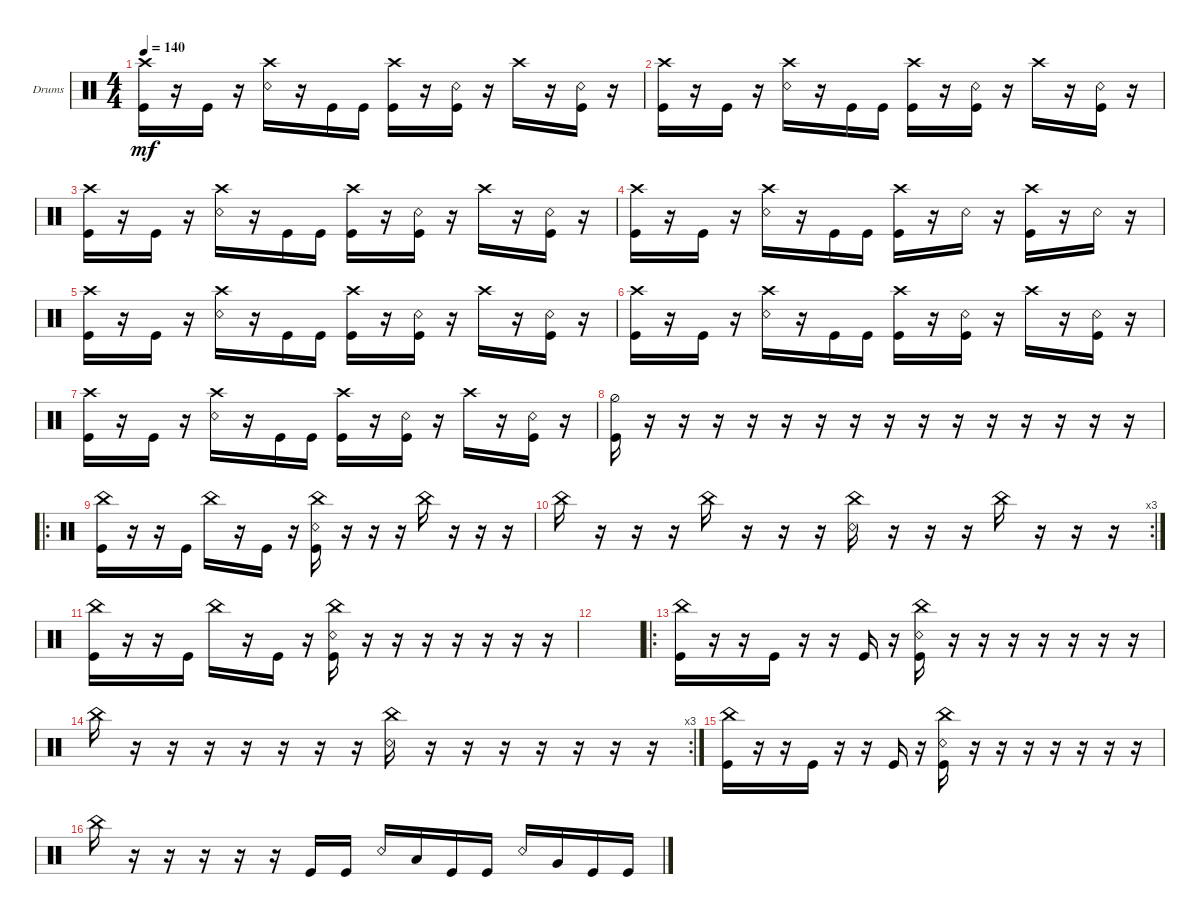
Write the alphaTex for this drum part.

\defaultSystemsLayout 4
\bracketExtendMode groupsimilarinstruments
\firstSystemTrackNameOrientation horizontal
\otherSystemsTrackNameOrientation horizontal
\track ("Drums" "Drums") {instrument percussion}
\staff {score}
\articulation defaults
\ts (4 4)
\tempo 140
\clef neutral
\ks c
("Kick (hit)" "Crash high (hit)").16{dy mf} r.16 "Kick (hit)".16 r.16 ("Snare (rim shot)" "Crash high (hit)").16 r.16 "Kick (hit)".16 "Kick (hit)".16 ("Kick (hit)" "Crash high (hit)").16 r.16 ("Kick (hit)" "Snare (rim shot)").16 r.16 "Crash high (hit)".16 r.16 ("Kick (hit)" "Snare (rim shot)").16 r.16 |
("Kick (hit)" "Crash high (hit)").16 r.16 "Kick (hit)".16 r.16 ("Snare (rim shot)" "Crash high (hit)").16 r.16 "Kick (hit)".16 "Kick (hit)".16 ("Kick (hit)" "Crash high (hit)").16 r.16 ("Kick (hit)" "Snare (rim shot)").16 r.16 "Crash high (hit)".16 r.16 ("Kick (hit)" "Snare (rim shot)").16 r.16 |
("Kick (hit)" "Crash high (hit)").16 r.16 "Kick (hit)".16 r.16 ("Snare (rim shot)" "Crash high (hit)").16 r.16 "Kick (hit)".16 "Kick (hit)".16 ("Kick (hit)" "Crash high (hit)").16 r.16 ("Kick (hit)" "Snare (rim shot)").16 r.16 "Crash high (hit)".16 r.16 ("Kick (hit)" "Snare (rim shot)").16 r.16 |
("Kick (hit)" "Crash high (hit)").16 r.16 "Kick (hit)".16 r.16 ("Snare (rim shot)" "Crash high (hit)").16 r.16 "Kick (hit)".16 "Kick (hit)".16 ("Crash high (hit)" "Kick (hit)").16 r.16 "Snare (rim shot)".16 r.16 ("Kick (hit)" "Crash high (hit)").16 r.16 "Snare (rim shot)".16 r.16 |
("Kick (hit)" "Crash high (hit)").16 r.16 "Kick (hit)".16 r.16 ("Snare (rim shot)" "Crash high (hit)").16 r.16 "Kick (hit)".16 "Kick (hit)".16 ("Kick (hit)" "Crash high (hit)").16 r.16 ("Kick (hit)" "Snare (rim shot)").16 r.16 "Crash high (hit)".16 r.16 ("Kick (hit)" "Snare (rim shot)").16 r.16 |
("Kick (hit)" "Crash high (hit)").16 r.16 "Kick (hit)".16 r.16 ("Snare (rim shot)" "Crash high (hit)").16 r.16 "Kick (hit)".16 "Kick (hit)".16 ("Kick (hit)" "Crash high (hit)").16 r.16 ("Kick (hit)" "Snare (rim shot)").16 r.16 "Crash high (hit)".16 r.16 ("Kick (hit)" "Snare (rim shot)").16 r.16 |
("Kick (hit)" "Crash high (hit)").16 r.16 "Kick (hit)".16 r.16 ("Snare (rim shot)" "Crash high (hit)").16 r.16 "Kick (hit)".16 "Kick (hit)".16 ("Kick (hit)" "Crash high (hit)").16 r.16 ("Kick (hit)" "Snare (rim shot)").16 r.16 "Crash high (hit)".16 r.16 ("Kick (hit)" "Snare (rim shot)").16 r.16 |
("Hi-Hat (half)" "Kick (hit)").16 r.16 r.16 r.16 r.16 r.16 r.16 r.16 r.16 r.16 r.16 r.16 r.16 r.16 r.16 r.16 |
\ro
("China (hit)" "Kick (hit)").16 r.16 r.16 "Kick (hit)".16 "China (hit)".16 r.16 "Kick (hit)".16 r.16 ("China (hit)" "Kick (hit)" "Snare (rim shot)").16 r.16 r.16 r.16 "China (hit)".16 r.16 r.16 r.16 |
\rc 3 "China (hit)".16
r.16 r.16 r.16 "China (hit)".16 r.16 r.16 r.16 ("China (hit)" "Snare (rim shot)").16 r.16 r.16 r.16 "China (hit)".16 r.16 r.16 r.16 |
("China (hit)" "Kick (hit)").16 r.16 r.16 "Kick (hit)".16 "China (hit)".16 r.16 "Kick (hit)".16 r.16 ("China (hit)" "Kick (hit)" "Snare (rim shot)").16 r.16 r.16 r.16 r.16 r.16 r.16 r.16 |
|
\ro
("China (hit)" "Kick (hit)").16 r.16 r.16 "Kick (hit)".16 r.16 r.16 "Kick (hit)".16 r.16 ("China (hit)" "Kick (hit)" "Snare (rim shot)").16 r.16 r.16 r.16 r.16 r.16 r.16 r.16 |
\rc 3 "China (hit)".16
r.16 r.16 r.16 r.16 r.16 r.16 r.16 ("China (hit)" "Snare (rim shot)").16 r.16 r.16 r.16 r.16 r.16 r.16 r.16 |
("China (hit)" "Kick (hit)").16 r.16 r.16 "Kick (hit)".16 r.16 r.16 "Kick (hit)".16 r.16 ("China (hit)" "Kick (hit)" "Snare (rim shot)").16 r.16 r.16 r.16 r.16 r.16 r.16 r.16 |
"China (hit)".16 r.16 r.16 r.16 r.16 r.16 "Kick (hit)".16 "Kick (hit)".16 "Snare (rim shot)".16 "Low Tom (hit)".16 "Kick (hit)".16 "Kick (hit)".16 "Snare (rim shot)".16 "Very Low Tom (hit)".16 "Kick (hit)".16 "Kick (hit)".16
